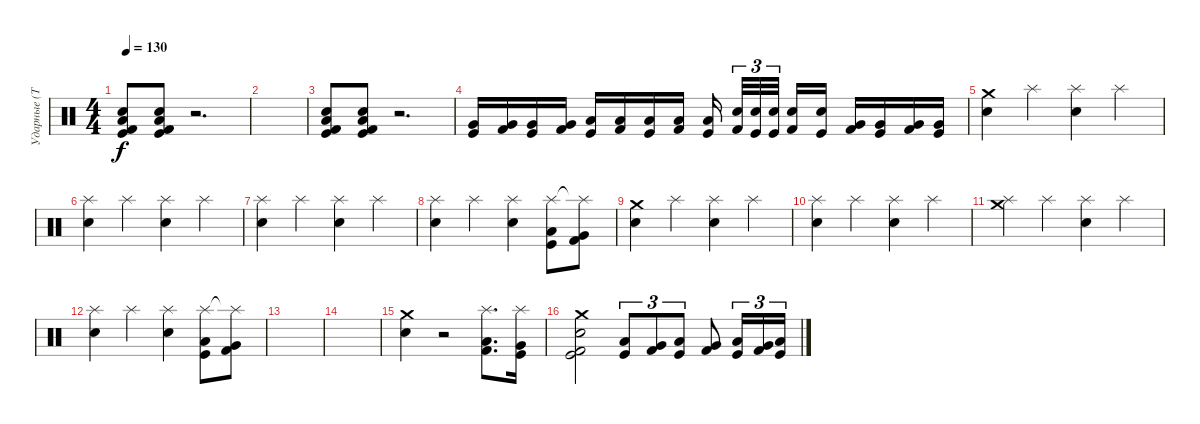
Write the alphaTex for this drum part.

\track ("Ударные (Тьодальв)" "Ударные (Т") {instrument percussion}
\staff {score}
\articulation defaults
\ts (4 4)
\tempo 130
\clef neutral
\ks c
("Low Floor Tom (hit)" "Snare (hit) 2" "Kick (hit)" "Kick (hit) 2").8{dy f} ("Low Floor Tom (hit)" "Snare (hit) 2" "Kick (hit)" "Kick (hit) 2").8 r.2{d} |
|
("Low Floor Tom (hit)" "Snare (hit) 2" "Kick (hit)" "Kick (hit) 2").8 ("Low Floor Tom (hit)" "Snare (hit) 2" "Kick (hit)" "Kick (hit) 2").8 r.2{d} |
("Very Low Tom (hit)" "Kick (hit)").16 ("Very Low Tom (hit)" "Kick (hit) 2").16 ("Very Low Tom (hit)" "Kick (hit)").16 ("Very Low Tom (hit)" "Kick (hit) 2").16 ("Low Floor Tom (hit)" "Kick (hit)").16 ("Low Floor Tom (hit)" "Kick (hit) 2").16 ("Low Floor Tom (hit)" "Kick (hit)").16 ("Low Floor Tom (hit)" "Kick (hit) 2").16 ("Low Floor Tom (hit)" "Kick (hit)").16{beam splitsecondary} ("Snare (hit) 2" "Kick (hit) 2").32{tu (3 2)} ("Snare (hit) 2" "Kick (hit)").32{tu (3 2)} ("Snare (hit) 2" "Kick (hit)").32{tu (3 2) beam splitsecondary} ("Electric Snare (hit)" "Kick (hit) 2").16 ("Electric Snare (hit)" "Kick (hit)").16 ("Very Low Tom (hit)" "Kick (hit) 2").16 ("Very Low Tom (hit)" "Kick (hit)").16 ("Very Low Tom (hit)" "Kick (hit) 2").16 ("Very Low Tom (hit)" "Kick (hit)").16 |
("Crash medium (hit)" "Snare (hit) 2").4 "Splash (hit)".4 ("Splash (hit)" "Snare (hit) 2").4 "Splash (hit)".4 |
("Splash (hit)" "Snare (hit) 2").4 "Splash (hit)".4 ("Splash (hit)" "Snare (hit) 2").4 "Splash (hit)".4 |
("Splash (hit)" "Snare (hit) 2").4 "Splash (hit)".4 ("Splash (hit)" "Snare (hit) 2").4 "Splash (hit)".4 |
("Splash (hit)" "Snare (hit) 2").4 "Splash (hit)".4 ("Splash (hit)" "Snare (hit) 2").4 ("Splash (hit)" "Kick (hit)" "Low Floor Tom (hit)").8 ("Splash (hit)"{t} "Kick (hit) 2" "Very Low Tom (hit)").8 |
("Crash medium (hit)" "Snare (hit) 2").4 "Splash (hit)".4 ("Splash (hit)" "Snare (hit) 2").4 "Splash (hit)".4 |
("Splash (hit)" "Snare (hit) 2").4 "Splash (hit)".4 ("Splash (hit)" "Snare (hit) 2").4 "Splash (hit)".4 |
("Splash (hit)" "Crash medium (hit)").4 "Splash (hit)".4 ("Splash (hit)" "Snare (hit) 2").4 "Splash (hit)".4 |
("Splash (hit)" "Snare (hit) 2").4 "Splash (hit)".4 ("Splash (hit)" "Snare (hit) 2").4 ("Splash (hit)" "Kick (hit)" "Low Floor Tom (hit)").8 ("Splash (hit)"{t} "Kick (hit) 2" "Very Low Tom (hit)").8 |
|
|
("Crash medium (hit)" "Snare (hit) 2").4 r.2 ("Splash (hit)" "Low Floor Tom (hit)" "Kick (hit) 2").8{d} ("Splash (hit)" "Very Low Tom (hit)" "Kick (hit)").16 |
("Crash medium (hit)" "Snare (hit) 2" "Kick (hit)" "Kick (hit) 2").2 ("Kick (hit)" "Low Floor Tom (hit)").8{tu (3 2)} ("Kick (hit) 2" "Very Low Tom (hit)").8{tu (3 2)} ("Kick (hit)" "Low Floor Tom (hit)").8{tu (3 2)} ("Kick (hit) 2" "Very Low Tom (hit)").8 ("Kick (hit)" "Low Floor Tom (hit)").16{tu (3 2)} ("Kick (hit) 2" "Very Low Tom (hit)").16{tu (3 2)} ("Kick (hit)" "Low Floor Tom (hit)").16{tu (3 2)}
